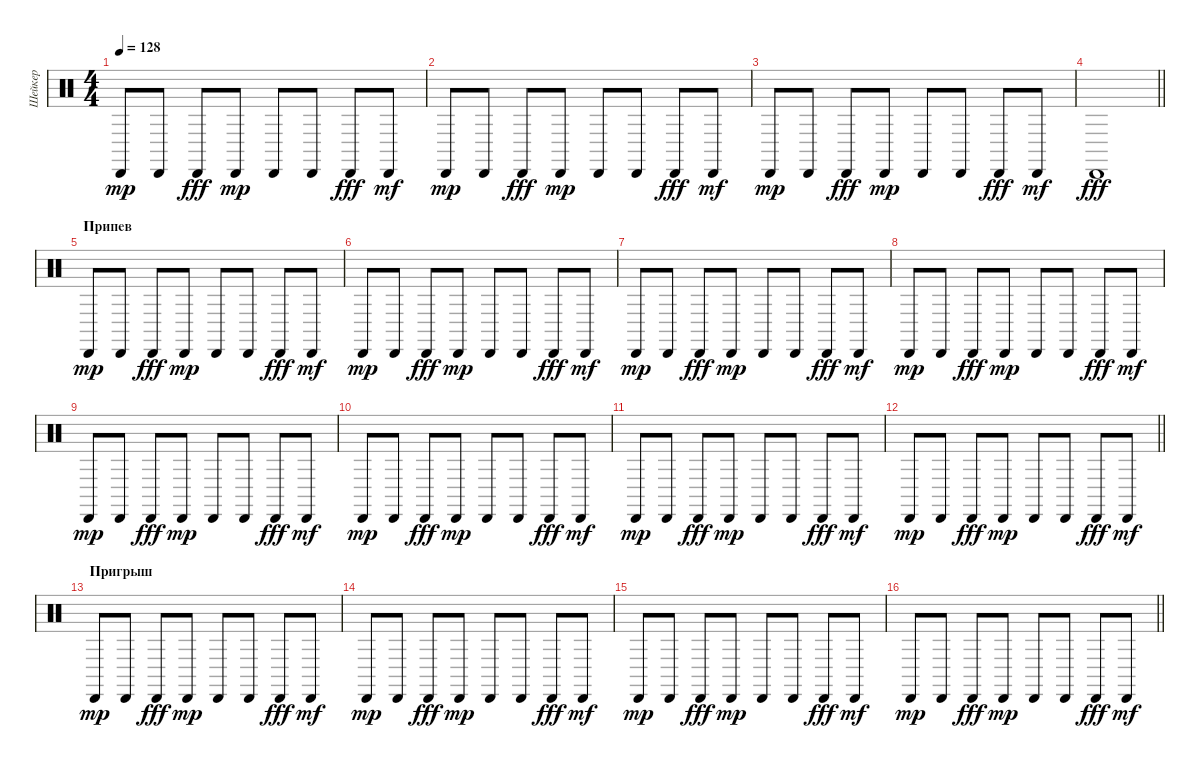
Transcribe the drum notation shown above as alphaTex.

\track ("Шейкер" "Шейкер") {instrument percussion}
\staff {score}
\articulation defaults
\ts (4 4)
\tempo 128
\clef neutral
\ks c "Cabasa (hit)".8{dy mp} "Cabasa (hit)".8 "Cabasa (hit)".8{dy fff} "Cabasa (hit)".8{dy mp} "Cabasa (hit)".8 "Cabasa (hit)".8 "Cabasa (hit)".8{dy fff} "Cabasa (hit)".8{dy mf}
|
"Cabasa (hit)".8{dy mp} "Cabasa (hit)".8 "Cabasa (hit)".8{dy fff} "Cabasa (hit)".8{dy mp} "Cabasa (hit)".8 "Cabasa (hit)".8 "Cabasa (hit)".8{dy fff} "Cabasa (hit)".8{dy mf} |
"Cabasa (hit)".8{dy mp} "Cabasa (hit)".8 "Cabasa (hit)".8{dy fff} "Cabasa (hit)".8{dy mp} "Cabasa (hit)".8 "Cabasa (hit)".8 "Cabasa (hit)".8{dy fff} "Cabasa (hit)".8{dy mf} |
\barLineRight lightlight "Cabasa (hit)".1{dy fff}
|
\section ("" "Припев")
"Cabasa (hit)".8{dy mp} "Cabasa (hit)".8 "Cabasa (hit)".8{dy fff} "Cabasa (hit)".8{dy mp} "Cabasa (hit)".8 "Cabasa (hit)".8 "Cabasa (hit)".8{dy fff} "Cabasa (hit)".8{dy mf} |
"Cabasa (hit)".8{dy mp} "Cabasa (hit)".8 "Cabasa (hit)".8{dy fff} "Cabasa (hit)".8{dy mp} "Cabasa (hit)".8 "Cabasa (hit)".8 "Cabasa (hit)".8{dy fff} "Cabasa (hit)".8{dy mf} |
"Cabasa (hit)".8{dy mp} "Cabasa (hit)".8 "Cabasa (hit)".8{dy fff} "Cabasa (hit)".8{dy mp} "Cabasa (hit)".8 "Cabasa (hit)".8 "Cabasa (hit)".8{dy fff} "Cabasa (hit)".8{dy mf} |
"Cabasa (hit)".8{dy mp} "Cabasa (hit)".8 "Cabasa (hit)".8{dy fff} "Cabasa (hit)".8{dy mp} "Cabasa (hit)".8 "Cabasa (hit)".8 "Cabasa (hit)".8{dy fff} "Cabasa (hit)".8{dy mf} |
"Cabasa (hit)".8{dy mp} "Cabasa (hit)".8 "Cabasa (hit)".8{dy fff} "Cabasa (hit)".8{dy mp} "Cabasa (hit)".8 "Cabasa (hit)".8 "Cabasa (hit)".8{dy fff} "Cabasa (hit)".8{dy mf} |
"Cabasa (hit)".8{dy mp} "Cabasa (hit)".8 "Cabasa (hit)".8{dy fff} "Cabasa (hit)".8{dy mp} "Cabasa (hit)".8 "Cabasa (hit)".8 "Cabasa (hit)".8{dy fff} "Cabasa (hit)".8{dy mf} |
"Cabasa (hit)".8{dy mp} "Cabasa (hit)".8 "Cabasa (hit)".8{dy fff} "Cabasa (hit)".8{dy mp} "Cabasa (hit)".8 "Cabasa (hit)".8 "Cabasa (hit)".8{dy fff} "Cabasa (hit)".8{dy mf} |
\barLineRight lightlight "Cabasa (hit)".8{dy mp} "Cabasa (hit)".8 "Cabasa (hit)".8{dy fff} "Cabasa (hit)".8{dy mp} "Cabasa (hit)".8 "Cabasa (hit)".8 "Cabasa (hit)".8{dy fff} "Cabasa (hit)".8{dy mf}
|
\section ("" "Пригрыш")
"Cabasa (hit)".8{dy mp} "Cabasa (hit)".8 "Cabasa (hit)".8{dy fff} "Cabasa (hit)".8{dy mp} "Cabasa (hit)".8 "Cabasa (hit)".8 "Cabasa (hit)".8{dy fff} "Cabasa (hit)".8{dy mf} |
"Cabasa (hit)".8{dy mp} "Cabasa (hit)".8 "Cabasa (hit)".8{dy fff} "Cabasa (hit)".8{dy mp} "Cabasa (hit)".8 "Cabasa (hit)".8 "Cabasa (hit)".8{dy fff} "Cabasa (hit)".8{dy mf} |
"Cabasa (hit)".8{dy mp} "Cabasa (hit)".8 "Cabasa (hit)".8{dy fff} "Cabasa (hit)".8{dy mp} "Cabasa (hit)".8 "Cabasa (hit)".8 "Cabasa (hit)".8{dy fff} "Cabasa (hit)".8{dy mf} |
\barLineRight lightlight "Cabasa (hit)".8{dy mp} "Cabasa (hit)".8 "Cabasa (hit)".8{dy fff} "Cabasa (hit)".8{dy mp} "Cabasa (hit)".8 "Cabasa (hit)".8 "Cabasa (hit)".8{dy fff} "Cabasa (hit)".8{dy mf}
